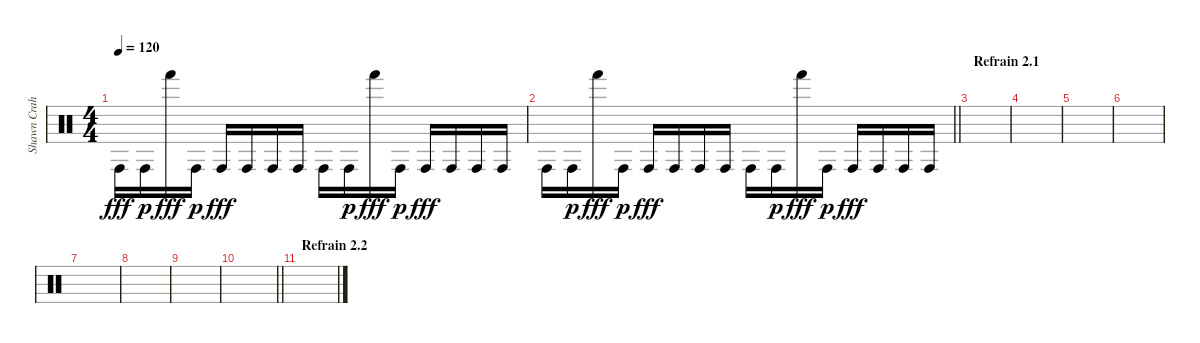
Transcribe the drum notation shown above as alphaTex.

\track ("Shawn Crahan" "Shawn Crah") {instrument percussion}
\staff {score}
\articulation defaults
\ts (4 4)
\tempo 120
\clef neutral
\ks c "Conga high (hit)".16{dy fff} "Conga high (hit)".16{dy p} "Hand (hit)".16{dy fff} "Conga high (hit)".16{dy p} "Conga high (hit)".16{dy fff} "Conga high (hit)".16 "Conga high (hit)".16 "Conga high (hit)".16 "Conga high (hit)".16 "Conga high (hit)".16{dy p} "Hand (hit)".16{dy fff} "Conga high (hit)".16{dy p} "Conga high (hit)".16{dy fff} "Conga high (hit)".16 "Conga high (hit)".16 "Conga high (hit)".16
|
\barLineRight lightlight "Conga high (hit)".16 "Conga high (hit)".16{dy p} "Hand (hit)".16{dy fff} "Conga high (hit)".16{dy p} "Conga high (hit)".16{dy fff} "Conga high (hit)".16 "Conga high (hit)".16 "Conga high (hit)".16 "Conga high (hit)".16 "Conga high (hit)".16{dy p} "Hand (hit)".16{dy fff} "Conga high (hit)".16{dy p} "Conga high (hit)".16{dy fff} "Conga high (hit)".16 "Conga high (hit)".16 "Conga high (hit)".16
|
\section ("" "Refrain 2.1")
|
|
|
|
|
|
|
\barLineRight lightlight
|
\section ("" "Refrain 2.2")
